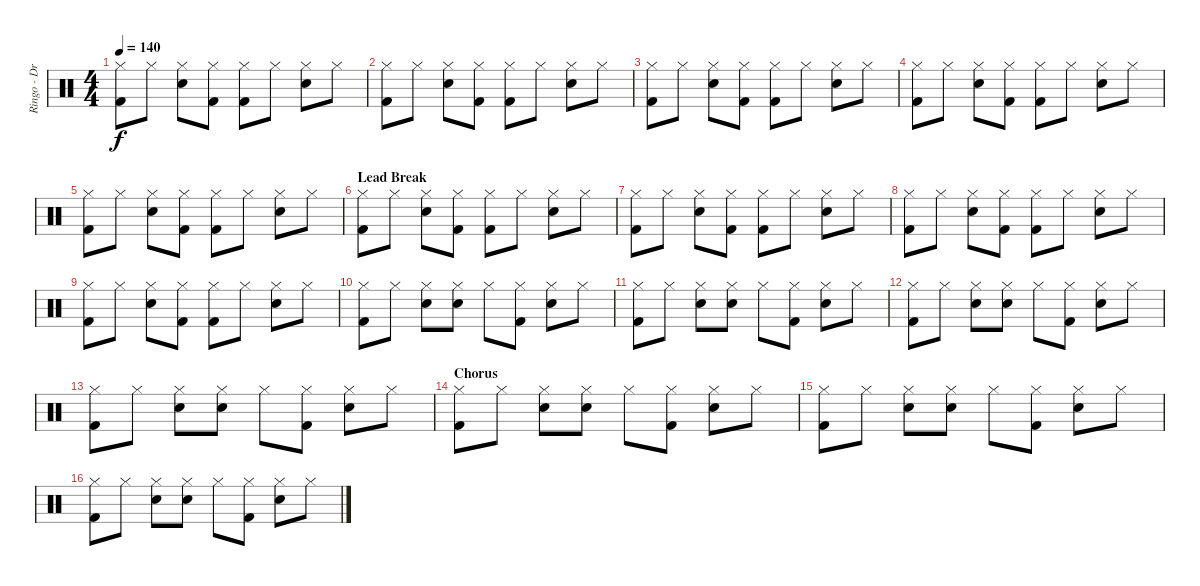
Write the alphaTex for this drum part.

\track ("Ringo - Drums" "Ringo - Dr") {instrument percussion}
\staff {score}
\articulation defaults
\ts (4 4)
\tempo 140
\clef neutral
\ks c
("Kick (hit) 2" "Hi-Hat (closed)").8{dy f} "Hi-Hat (closed)".8 ("Snare (hit) 2" "Hi-Hat (closed)").8 ("Kick (hit) 2" "Hi-Hat (closed)").8 ("Kick (hit) 2" "Hi-Hat (closed)").8 "Hi-Hat (closed)".8 ("Snare (hit) 2" "Hi-Hat (closed)").8 "Hi-Hat (closed)".8 |
("Kick (hit) 2" "Hi-Hat (closed)").8 "Hi-Hat (closed)".8 ("Snare (hit) 2" "Hi-Hat (closed)").8 ("Kick (hit) 2" "Hi-Hat (closed)").8 ("Kick (hit) 2" "Hi-Hat (closed)").8 "Hi-Hat (closed)".8 ("Snare (hit) 2" "Hi-Hat (closed)").8 "Hi-Hat (closed)".8 |
("Kick (hit) 2" "Hi-Hat (closed)").8 "Hi-Hat (closed)".8 ("Snare (hit) 2" "Hi-Hat (closed)").8 ("Kick (hit) 2" "Hi-Hat (closed)").8 ("Kick (hit) 2" "Hi-Hat (closed)").8 "Hi-Hat (closed)".8 ("Snare (hit) 2" "Hi-Hat (closed)").8 "Hi-Hat (closed)".8 |
("Kick (hit) 2" "Hi-Hat (closed)").8 "Hi-Hat (closed)".8 ("Snare (hit) 2" "Hi-Hat (closed)").8 ("Kick (hit) 2" "Hi-Hat (closed)").8 ("Kick (hit) 2" "Hi-Hat (closed)").8 "Hi-Hat (closed)".8 ("Snare (hit) 2" "Hi-Hat (closed)").8 "Hi-Hat (closed)".8 |
("Kick (hit) 2" "Hi-Hat (closed)").8 "Hi-Hat (closed)".8 ("Snare (hit) 2" "Hi-Hat (closed)").8 ("Kick (hit) 2" "Hi-Hat (closed)").8 ("Kick (hit) 2" "Hi-Hat (closed)").8 "Hi-Hat (closed)".8 ("Snare (hit) 2" "Hi-Hat (closed)").8 "Hi-Hat (closed)".8 |
\section ("" "Lead Break")
("Kick (hit) 2" "Hi-Hat (closed)").8 "Hi-Hat (closed)".8 ("Snare (hit) 2" "Hi-Hat (closed)").8 ("Kick (hit) 2" "Hi-Hat (closed)").8 ("Kick (hit) 2" "Hi-Hat (closed)").8 "Hi-Hat (closed)".8 ("Snare (hit) 2" "Hi-Hat (closed)").8 "Hi-Hat (closed)".8 |
("Kick (hit) 2" "Hi-Hat (closed)").8 "Hi-Hat (closed)".8 ("Snare (hit) 2" "Hi-Hat (closed)").8 ("Kick (hit) 2" "Hi-Hat (closed)").8 ("Kick (hit) 2" "Hi-Hat (closed)").8 "Hi-Hat (closed)".8 ("Snare (hit) 2" "Hi-Hat (closed)").8 "Hi-Hat (closed)".8 |
("Kick (hit) 2" "Hi-Hat (closed)").8 "Hi-Hat (closed)".8 ("Snare (hit) 2" "Hi-Hat (closed)").8 ("Kick (hit) 2" "Hi-Hat (closed)").8 ("Kick (hit) 2" "Hi-Hat (closed)").8 "Hi-Hat (closed)".8 ("Snare (hit) 2" "Hi-Hat (closed)").8 "Hi-Hat (closed)".8 |
("Kick (hit) 2" "Hi-Hat (closed)").8 "Hi-Hat (closed)".8 ("Snare (hit) 2" "Hi-Hat (closed)").8 ("Kick (hit) 2" "Hi-Hat (closed)").8 ("Kick (hit) 2" "Hi-Hat (closed)").8 "Hi-Hat (closed)".8 ("Snare (hit) 2" "Hi-Hat (closed)").8 "Hi-Hat (closed)".8 |
("Kick (hit) 2" "Hi-Hat (closed)").8 "Hi-Hat (closed)".8 ("Snare (hit) 2" "Hi-Hat (closed)").8 ("Snare (hit) 2" "Hi-Hat (closed)").8 "Hi-Hat (closed)".8 ("Kick (hit) 2" "Hi-Hat (closed)").8 ("Snare (hit) 2" "Hi-Hat (closed)").8 "Hi-Hat (closed)".8 |
("Kick (hit) 2" "Hi-Hat (closed)").8 "Hi-Hat (closed)".8 ("Snare (hit) 2" "Hi-Hat (closed)").8 ("Snare (hit) 2" "Hi-Hat (closed)").8 "Hi-Hat (closed)".8 ("Kick (hit) 2" "Hi-Hat (closed)").8 ("Snare (hit) 2" "Hi-Hat (closed)").8 "Hi-Hat (closed)".8 |
("Kick (hit) 2" "Hi-Hat (closed)").8 "Hi-Hat (closed)".8 ("Snare (hit) 2" "Hi-Hat (closed)").8 ("Snare (hit) 2" "Hi-Hat (closed)").8 "Hi-Hat (closed)".8 ("Kick (hit) 2" "Hi-Hat (closed)").8 ("Snare (hit) 2" "Hi-Hat (closed)").8 "Hi-Hat (closed)".8 |
("Kick (hit) 2" "Hi-Hat (closed)").8 "Hi-Hat (closed)".8 ("Snare (hit) 2" "Hi-Hat (closed)").8 ("Snare (hit) 2" "Hi-Hat (closed)").8 "Hi-Hat (closed)".8 ("Kick (hit) 2" "Hi-Hat (closed)").8 ("Snare (hit) 2" "Hi-Hat (closed)").8 "Hi-Hat (closed)".8 |
\section ("" "Chorus")
("Kick (hit) 2" "Hi-Hat (closed)").8 "Hi-Hat (closed)".8 ("Snare (hit) 2" "Hi-Hat (closed)").8 ("Snare (hit) 2" "Hi-Hat (closed)").8 "Hi-Hat (closed)".8 ("Kick (hit) 2" "Hi-Hat (closed)").8 ("Snare (hit) 2" "Hi-Hat (closed)").8 "Hi-Hat (closed)".8 |
("Kick (hit) 2" "Hi-Hat (closed)").8 "Hi-Hat (closed)".8 ("Snare (hit) 2" "Hi-Hat (closed)").8 ("Snare (hit) 2" "Hi-Hat (closed)").8 "Hi-Hat (closed)".8 ("Kick (hit) 2" "Hi-Hat (closed)").8 ("Snare (hit) 2" "Hi-Hat (closed)").8 "Hi-Hat (closed)".8 |
("Kick (hit) 2" "Hi-Hat (closed)").8 "Hi-Hat (closed)".8 ("Snare (hit) 2" "Hi-Hat (closed)").8 ("Snare (hit) 2" "Hi-Hat (closed)").8 "Hi-Hat (closed)".8 ("Kick (hit) 2" "Hi-Hat (closed)").8 ("Snare (hit) 2" "Hi-Hat (closed)").8 "Hi-Hat (closed)".8
